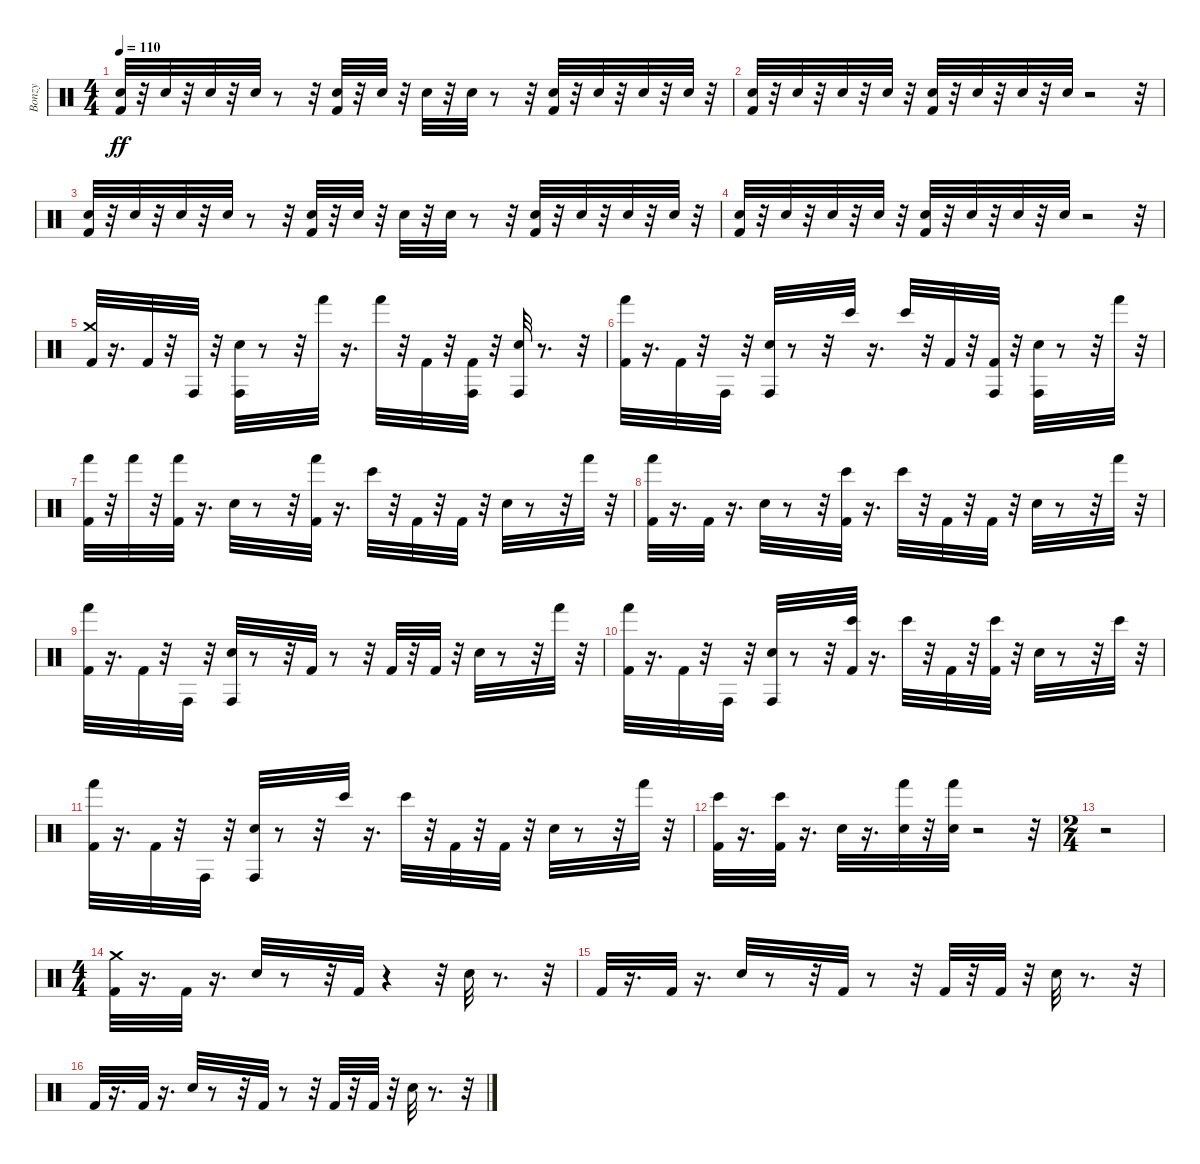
\track ("Bonzy" "Bonzy") {instrument percussion}
\staff {score}
\articulation defaults
\ts (4 4)
\tempo 110
\clef neutral
\ks c
("Electric Snare (hit)" "Kick (hit) 2").32{dy ff} r.32 "Electric Snare (hit)".32 r.32 "Electric Snare (hit)".32 r.32 "Electric Snare (hit)".32 r.8 r.32 ("Electric Snare (hit)" "Kick (hit) 2").32 r.32 "Electric Snare (hit)".32 r.32 "Electric Snare (hit)".32 r.32 "Electric Snare (hit)".32 r.8 r.32 ("Electric Snare (hit)" "Kick (hit) 2").32 r.32 "Electric Snare (hit)".32 r.32 "Electric Snare (hit)".32 r.32 "Electric Snare (hit)".32 r.32 |
("Kick (hit) 2" "Electric Snare (hit)").32 r.32 "Electric Snare (hit)".32 r.32 "Electric Snare (hit)".32 r.32 "Electric Snare (hit)".32 r.32 ("Electric Snare (hit)" "Kick (hit) 2").32 r.32 "Electric Snare (hit)".32 r.32 "Electric Snare (hit)".32 r.32 "Electric Snare (hit)".32 r.2 r.32 |
("Kick (hit) 2" "Electric Snare (hit)").32 r.32 "Electric Snare (hit)".32 r.32 "Electric Snare (hit)".32 r.32 "Electric Snare (hit)".32 r.8 r.32 ("Electric Snare (hit)" "Kick (hit) 2").32 r.32 "Electric Snare (hit)".32 r.32 "Electric Snare (hit)".32 r.32 "Electric Snare (hit)".32 r.8 r.32 ("Electric Snare (hit)" "Kick (hit) 2").32 r.32 "Electric Snare (hit)".32 r.32 "Electric Snare (hit)".32 r.32 "Electric Snare (hit)".32 r.32 |
("Electric Snare (hit)" "Kick (hit) 2").32 r.32 "Electric Snare (hit)".32 r.32 "Electric Snare (hit)".32 r.32 "Electric Snare (hit)".32 r.32 ("Kick (hit) 2" "Electric Snare (hit)").32 r.32 "Electric Snare (hit)".32 r.32 "Electric Snare (hit)".32 r.32 "Electric Snare (hit)".32 r.2 r.32 |
("Kick (hit) 2" "Crash medium (hit)").32 r.16{d} "Kick (hit) 2".32 r.32 "Conga high (hit)".32 r.32 ("Electric Snare (hit)" "Conga high (hit)").32 r.8 r.32 "Hand (hit)".32 r.16{d} "Hand (hit)".32 r.32 "Kick (hit) 2".32 r.32 ("Conga high (hit)" "Kick (hit) 2").32 r.32 ("Electric Snare (hit)" "Conga high (hit)").32 r.8{d} r.32 |
("Kick (hit) 2" "Hand (hit)").32 r.16{d} "Kick (hit) 2".32 r.32 "Conga high (hit)".32 r.32 ("Conga high (hit)" "Electric Snare (hit)").32 r.8 r.32 "Bongo High (hit)".32 r.16{d} "Bongo High (hit)".32 r.32 "Kick (hit) 2".32 r.32 ("Kick (hit) 2" "Conga high (hit)").32 r.32 ("Conga high (hit)" "Electric Snare (hit)").32 r.8 r.32 "Hand (hit)".32 r.32 |
("Hand (hit)" "Kick (hit) 2").32 r.32 "Hand (hit)".32 r.32 ("Hand (hit)" "Kick (hit) 2").32 r.16{d} "Electric Snare (hit)".32 r.8 r.32 ("Hand (hit)" "Kick (hit) 2").32 r.16{d} "Bongo High (hit)".32 r.32 "Kick (hit) 2".32 r.32 "Kick (hit) 2".32 r.32 "Electric Snare (hit)".32 r.8 r.32 "Hand (hit)".32 r.32 |
("Hand (hit)" "Kick (hit) 2").32 r.16{d} "Kick (hit) 2".32 r.16{d} "Electric Snare (hit)".32 r.8 r.32 ("Kick (hit) 2" "Bongo High (hit)").32 r.16{d} "Bongo High (hit)".32 r.32 "Kick (hit) 2".32 r.32 "Kick (hit) 2".32 r.32 "Electric Snare (hit)".32 r.8 r.32 "Hand (hit)".32 r.32 |
("Kick (hit) 2" "Hand (hit)").32 r.16{d} "Kick (hit) 2".32 r.32 "Conga high (hit)".32 r.32 ("Electric Snare (hit)" "Conga high (hit)").32 r.8 r.32 "Kick (hit) 2".32 r.8 r.32 "Kick (hit) 2".32 r.32 "Kick (hit) 2".32 r.32 "Electric Snare (hit)".32 r.8 r.32 "Hand (hit)".32 r.32 |
("Hand (hit)" "Kick (hit) 2").32 r.16{d} "Kick (hit) 2".32 r.32 "Conga high (hit)".32 r.32 ("Electric Snare (hit)" "Conga high (hit)").32 r.8 r.32 ("Kick (hit) 2" "Bongo High (hit)").32 r.16{d} "Bongo High (hit)".32 r.32 "Kick (hit) 2".32 r.32 ("Bongo High (hit)" "Kick (hit) 2").32 r.32 "Electric Snare (hit)".32 r.8 r.32 "Bongo High (hit)".32 r.32 |
("Hand (hit)" "Kick (hit) 2").32 r.16{d} "Kick (hit) 2".32 r.32 "Conga high (hit)".32 r.32 ("Conga high (hit)" "Electric Snare (hit)").32 r.8 r.32 "Bongo High (hit)".32 r.16{d} "Bongo High (hit)".32 r.32 "Kick (hit) 2".32 r.32 "Kick (hit) 2".32 r.32 "Electric Snare (hit)".32 r.8 r.32 "Hand (hit)".32 r.32 |
("Kick (hit) 2" "Bongo High (hit)").32 r.16{d} ("Bongo High (hit)" "Kick (hit) 2").32 r.16{d} "Electric Snare (hit)".32 r.16{d} ("Electric Snare (hit)" "Hand (hit)").32 r.32 ("Electric Snare (hit)" "Hand (hit)").32 r.2 r.32 |
\ts (2 4)
r.2 |
\ts (4 4)
("Kick (hit) 2" "Crash medium (hit)").32 r.16{d} "Kick (hit) 2".32 r.16{d} "Electric Snare (hit)".32 r.8 r.32 "Kick (hit) 2".32 r.4 r.32 "Electric Snare (hit)".32 r.8{d} r.32 |
"Kick (hit) 2".32 r.16{d} "Kick (hit) 2".32 r.16{d} "Electric Snare (hit)".32 r.8 r.32 "Kick (hit) 2".32 r.8 r.32 "Kick (hit) 2".32 r.32 "Kick (hit) 2".32 r.32 "Electric Snare (hit)".32 r.8{d} r.32 |
"Kick (hit) 2".32 r.16{d} "Kick (hit) 2".32 r.16{d} "Electric Snare (hit)".32 r.8 r.32 "Kick (hit) 2".32 r.8 r.32 "Kick (hit) 2".32 r.32 "Kick (hit) 2".32 r.32 "Electric Snare (hit)".32 r.8{d} r.32
